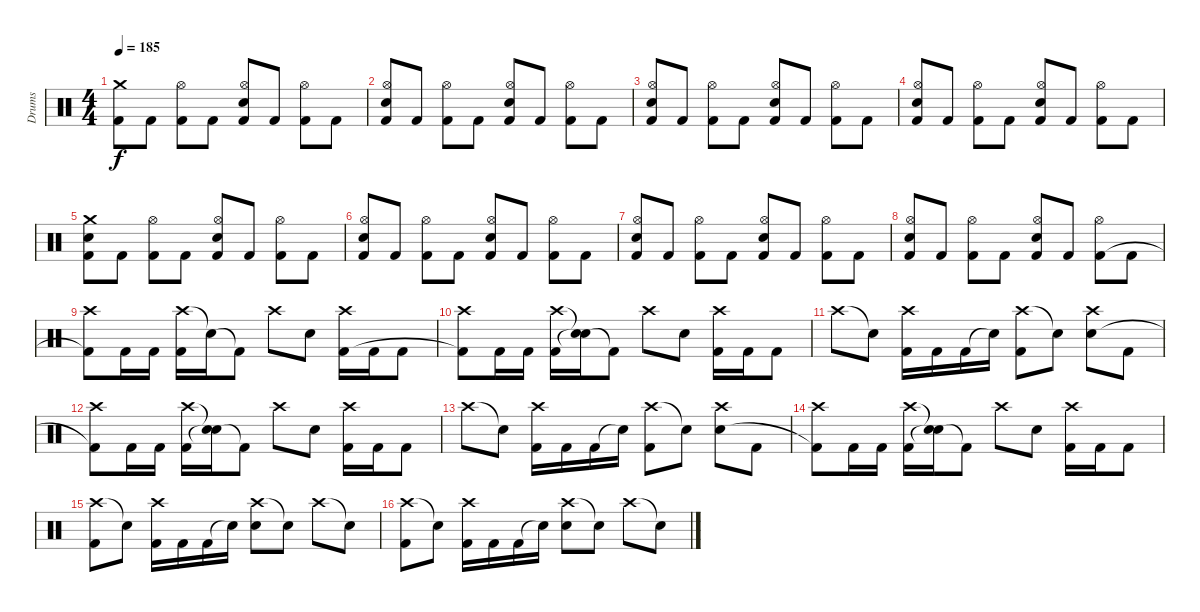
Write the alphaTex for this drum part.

\track ("Drums" "Drums") {instrument percussion}
\staff {score}
\articulation defaults
\ts (4 4)
\tempo 185
\clef neutral
\ks c
("Crash medium (hit)" "Kick (hit) 2").8{dy f} "Kick (hit) 2".8 ("Hi-Hat (open)" "Kick (hit) 2").8 "Kick (hit) 2".8 ("Hi-Hat (open)" "Electric Snare (hit)" "Kick (hit) 2").8 "Kick (hit) 2".8 ("Hi-Hat (open)" "Kick (hit) 2").8 "Kick (hit) 2".8 |
("Hi-Hat (open)" "Electric Snare (hit)" "Kick (hit) 2").8 "Kick (hit) 2".8 ("Hi-Hat (open)" "Kick (hit) 2").8 "Kick (hit) 2".8 ("Hi-Hat (open)" "Electric Snare (hit)" "Kick (hit) 2").8 "Kick (hit) 2".8 ("Hi-Hat (open)" "Kick (hit) 2").8 "Kick (hit) 2".8 |
("Hi-Hat (open)" "Electric Snare (hit)" "Kick (hit) 2").8 "Kick (hit) 2".8 ("Hi-Hat (open)" "Kick (hit) 2").8 "Kick (hit) 2".8 ("Hi-Hat (open)" "Electric Snare (hit)" "Kick (hit) 2").8 "Kick (hit) 2".8 ("Hi-Hat (open)" "Kick (hit) 2").8 "Kick (hit) 2".8 |
("Hi-Hat (open)" "Electric Snare (hit)" "Kick (hit) 2").8 "Kick (hit) 2".8 ("Hi-Hat (open)" "Kick (hit) 2").8 "Kick (hit) 2".8 ("Hi-Hat (open)" "Electric Snare (hit)" "Kick (hit) 2").8 "Kick (hit) 2".8 ("Hi-Hat (open)" "Kick (hit) 2").8 "Kick (hit) 2".8 |
("Crash medium (hit)" "Electric Snare (hit)" "Kick (hit) 2").8 "Kick (hit) 2".8 ("Hi-Hat (open)" "Kick (hit) 2").8 "Kick (hit) 2".8 ("Hi-Hat (open)" "Electric Snare (hit)" "Kick (hit) 2").8 "Kick (hit) 2".8 ("Hi-Hat (open)" "Kick (hit) 2").8 "Kick (hit) 2".8 |
("Hi-Hat (open)" "Electric Snare (hit)" "Kick (hit) 2").8 "Kick (hit) 2".8 ("Hi-Hat (open)" "Kick (hit) 2").8 "Kick (hit) 2".8 ("Hi-Hat (open)" "Electric Snare (hit)" "Kick (hit) 2").8 "Kick (hit) 2".8 ("Hi-Hat (open)" "Kick (hit) 2").8 "Kick (hit) 2".8 |
("Hi-Hat (open)" "Electric Snare (hit)" "Kick (hit) 2").8 "Kick (hit) 2".8 ("Hi-Hat (open)" "Kick (hit) 2").8 "Kick (hit) 2".8 ("Hi-Hat (open)" "Electric Snare (hit)" "Kick (hit) 2").8 "Kick (hit) 2".8 ("Hi-Hat (open)" "Kick (hit) 2").8 "Kick (hit) 2".8 |
("Hi-Hat (open)" "Electric Snare (hit)" "Kick (hit) 2").8 "Kick (hit) 2".8 ("Hi-Hat (open)" "Kick (hit) 2").8 "Kick (hit) 2".8 ("Hi-Hat (open)" "Electric Snare (hit)" "Kick (hit) 2").8 "Kick (hit) 2".8 ("Hi-Hat (open)" "Kick (hit) 2").8 "Kick (hit) 2".8 |
("Crash high (hit)" "Kick (hit) 2"{t}).8 "Kick (hit) 2".16 "Kick (hit) 2".16 ("Crash high (hit)" "Kick (hit) 2").16 "Snare (hit)"{t}.16 "Kick (hit) 2"{t}.8 "Crash high (hit)".8 "Electric Snare (hit)".8 ("Crash high (hit)" "Kick (hit) 2").16 "Kick (hit) 2".16 "Kick (hit) 2".8 |
("Crash high (hit)" "Kick (hit) 2"{t}).8 "Kick (hit) 2".16 "Kick (hit) 2".16 ("Crash high (hit)" "Kick (hit) 2").16 ("Snare (hit)"{t} "Snare (hit)"{t}).16 "Kick (hit) 2"{t}.8 "Crash high (hit)".8 "Electric Snare (hit)".8 ("Crash high (hit)" "Kick (hit) 2").16 "Kick (hit) 2".16 "Kick (hit) 2".8 |
"Crash high (hit)".8 "Snare (hit)"{t}.8 ("Crash high (hit)" "Kick (hit) 2").16 "Kick (hit) 2".16 "Kick (hit) 2".16 "Snare (hit)"{t}.16 ("Crash high (hit)" "Kick (hit) 2").8 "Snare (hit)"{t}.8 ("Crash high (hit)" "Electric Snare (hit)").8 "Kick (hit) 2".8 |
("Crash high (hit)" "Kick (hit) 2"{t}).8 "Kick (hit) 2".16 "Kick (hit) 2".16 ("Crash high (hit)" "Kick (hit) 2").16 ("Snare (hit)"{t} "Snare (hit)"{t}).16 "Kick (hit) 2"{t}.8 "Crash high (hit)".8 "Electric Snare (hit)".8 ("Crash high (hit)" "Kick (hit) 2").16 "Kick (hit) 2".16 "Kick (hit) 2".8 |
"Crash high (hit)".8 "Snare (hit)"{t}.8 ("Crash high (hit)" "Kick (hit) 2").16 "Kick (hit) 2".16 "Kick (hit) 2".16 "Snare (hit)"{t}.16 ("Crash high (hit)" "Kick (hit) 2").8 "Snare (hit)"{t}.8 ("Crash high (hit)" "Electric Snare (hit)").8 "Kick (hit) 2".8 |
("Crash high (hit)" "Kick (hit) 2"{t}).8 "Kick (hit) 2".16 "Kick (hit) 2".16 ("Crash high (hit)" "Kick (hit) 2").16 ("Snare (hit)"{t} "Snare (hit)"{t}).16 "Kick (hit) 2"{t}.8 "Crash high (hit)".8 "Electric Snare (hit)".8 ("Crash high (hit)" "Kick (hit) 2").16 "Kick (hit) 2".16 "Kick (hit) 2".8 |
("Crash high (hit)" "Kick (hit) 2").8 "Snare (hit)"{t}.8 ("Crash high (hit)" "Kick (hit) 2").16 "Kick (hit) 2".16 "Kick (hit) 2".16 "Snare (hit)"{t}.16 ("Crash high (hit)" "Electric Snare (hit)").8 "Snare (hit)"{t}.8 "Crash high (hit)".8 "Snare (hit)"{t}.8 |
("Crash high (hit)" "Kick (hit) 2").8 "Snare (hit)"{t}.8 ("Crash high (hit)" "Kick (hit) 2").16 "Kick (hit) 2".16 "Kick (hit) 2".16 "Snare (hit)"{t}.16 ("Crash high (hit)" "Electric Snare (hit)").8 "Snare (hit)"{t}.8 "Crash high (hit)".8 "Snare (hit)"{t}.8
